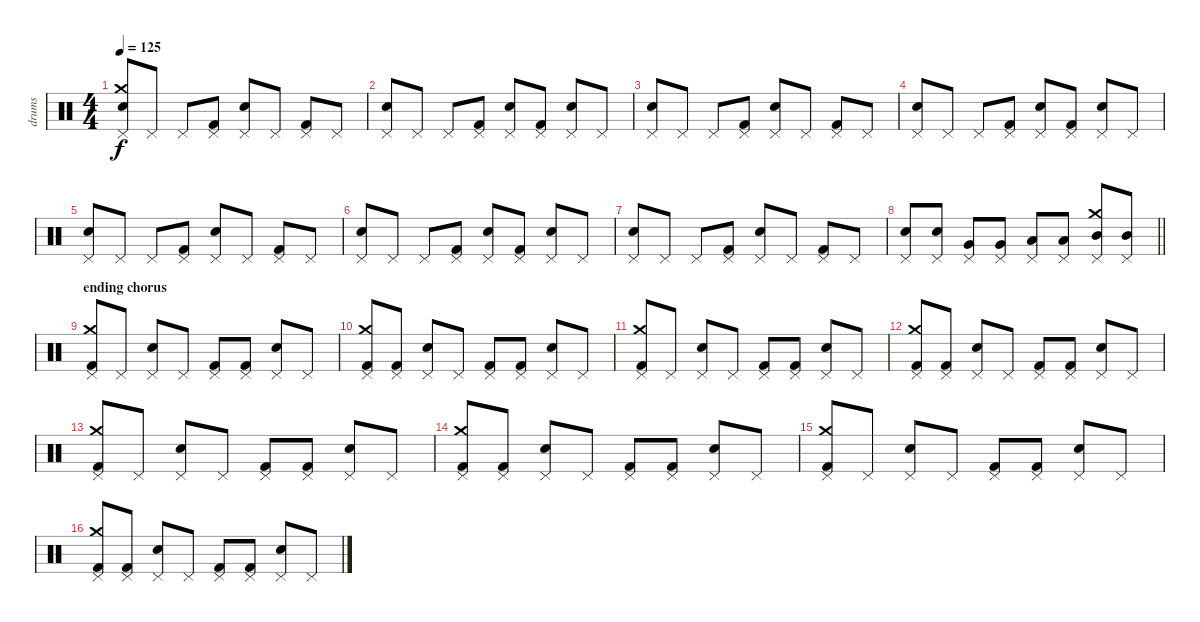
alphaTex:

\track ("drums" "drums") {instrument percussion}
\staff {score}
\articulation defaults
\ts (4 4)
\tempo 125
\clef neutral
\ks c
("Pedal Hi-Hat (hit)" "Crash medium (hit)" "Snare (hit) 2").8{dy f} "Pedal Hi-Hat (hit)".8 "Pedal Hi-Hat (hit)".8 ("Pedal Hi-Hat (hit)" "Kick (hit) 2").8 ("Pedal Hi-Hat (hit)" "Snare (hit) 2").8 "Pedal Hi-Hat (hit)".8 ("Pedal Hi-Hat (hit)" "Kick (hit) 2").8 "Pedal Hi-Hat (hit)".8 |
("Pedal Hi-Hat (hit)" "Snare (hit) 2").8 "Pedal Hi-Hat (hit)".8 "Pedal Hi-Hat (hit)".8 ("Pedal Hi-Hat (hit)" "Kick (hit) 2").8 ("Pedal Hi-Hat (hit)" "Snare (hit) 2").8 ("Pedal Hi-Hat (hit)" "Kick (hit) 2").8 ("Pedal Hi-Hat (hit)" "Snare (hit) 2").8 "Pedal Hi-Hat (hit)".8 |
("Pedal Hi-Hat (hit)" "Snare (hit) 2").8 "Pedal Hi-Hat (hit)".8 "Pedal Hi-Hat (hit)".8 ("Pedal Hi-Hat (hit)" "Kick (hit) 2").8 ("Pedal Hi-Hat (hit)" "Snare (hit) 2").8 "Pedal Hi-Hat (hit)".8 ("Pedal Hi-Hat (hit)" "Kick (hit) 2").8 "Pedal Hi-Hat (hit)".8 |
("Pedal Hi-Hat (hit)" "Snare (hit) 2").8 "Pedal Hi-Hat (hit)".8 "Pedal Hi-Hat (hit)".8 ("Pedal Hi-Hat (hit)" "Kick (hit) 2").8 ("Pedal Hi-Hat (hit)" "Snare (hit) 2").8 ("Pedal Hi-Hat (hit)" "Kick (hit) 2").8 ("Pedal Hi-Hat (hit)" "Snare (hit) 2").8 "Pedal Hi-Hat (hit)".8 |
("Pedal Hi-Hat (hit)" "Snare (hit) 2").8 "Pedal Hi-Hat (hit)".8 "Pedal Hi-Hat (hit)".8 ("Pedal Hi-Hat (hit)" "Kick (hit) 2").8 ("Pedal Hi-Hat (hit)" "Snare (hit) 2").8 "Pedal Hi-Hat (hit)".8 ("Pedal Hi-Hat (hit)" "Kick (hit) 2").8 "Pedal Hi-Hat (hit)".8 |
("Pedal Hi-Hat (hit)" "Snare (hit) 2").8 "Pedal Hi-Hat (hit)".8 "Pedal Hi-Hat (hit)".8 ("Pedal Hi-Hat (hit)" "Kick (hit) 2").8 ("Pedal Hi-Hat (hit)" "Snare (hit) 2").8 ("Pedal Hi-Hat (hit)" "Kick (hit) 2").8 ("Pedal Hi-Hat (hit)" "Snare (hit) 2").8 "Pedal Hi-Hat (hit)".8 |
("Pedal Hi-Hat (hit)" "Snare (hit) 2").8 "Pedal Hi-Hat (hit)".8 "Pedal Hi-Hat (hit)".8 ("Pedal Hi-Hat (hit)" "Kick (hit) 2").8 ("Pedal Hi-Hat (hit)" "Snare (hit) 2").8 "Pedal Hi-Hat (hit)".8 ("Pedal Hi-Hat (hit)" "Kick (hit) 2").8 "Pedal Hi-Hat (hit)".8 |
\barLineRight lightlight
("Pedal Hi-Hat (hit)" "Snare (hit) 2").8 ("Pedal Hi-Hat (hit)" "Snare (hit) 2").8 ("Pedal Hi-Hat (hit)" "Very Low Tom (hit)").8 ("Pedal Hi-Hat (hit)" "Very Low Tom (hit)").8 ("Pedal Hi-Hat (hit)" "Low Tom (hit)").8 ("Pedal Hi-Hat (hit)" "Low Tom (hit)").8 ("Pedal Hi-Hat (hit)" "Crash medium (hit)" "Mid Tom (hit)").8 ("Pedal Hi-Hat (hit)" "Mid Tom (hit)").8 |
\section ("" "ending chorus")
("Pedal Hi-Hat (hit)" "Crash medium (hit)" "Kick (hit) 2").8 "Pedal Hi-Hat (hit)".8 ("Pedal Hi-Hat (hit)" "Snare (hit) 2").8 "Pedal Hi-Hat (hit)".8 ("Pedal Hi-Hat (hit)" "Kick (hit) 2").8 ("Pedal Hi-Hat (hit)" "Kick (hit) 2").8 ("Pedal Hi-Hat (hit)" "Snare (hit) 2").8 "Pedal Hi-Hat (hit)".8 |
("Pedal Hi-Hat (hit)" "Crash medium (hit)" "Kick (hit) 2").8 ("Pedal Hi-Hat (hit)" "Kick (hit) 2").8 ("Pedal Hi-Hat (hit)" "Snare (hit) 2").8 "Pedal Hi-Hat (hit)".8 ("Pedal Hi-Hat (hit)" "Kick (hit) 2").8 ("Pedal Hi-Hat (hit)" "Kick (hit) 2").8 ("Pedal Hi-Hat (hit)" "Snare (hit) 2").8 "Pedal Hi-Hat (hit)".8 |
("Pedal Hi-Hat (hit)" "Crash medium (hit)" "Kick (hit) 2").8 "Pedal Hi-Hat (hit)".8 ("Pedal Hi-Hat (hit)" "Snare (hit) 2").8 "Pedal Hi-Hat (hit)".8 ("Pedal Hi-Hat (hit)" "Kick (hit) 2").8 ("Pedal Hi-Hat (hit)" "Kick (hit) 2").8 ("Pedal Hi-Hat (hit)" "Snare (hit) 2").8 "Pedal Hi-Hat (hit)".8 |
("Pedal Hi-Hat (hit)" "Crash medium (hit)" "Kick (hit) 2").8 ("Pedal Hi-Hat (hit)" "Kick (hit) 2").8 ("Pedal Hi-Hat (hit)" "Snare (hit) 2").8 "Pedal Hi-Hat (hit)".8 ("Pedal Hi-Hat (hit)" "Kick (hit) 2").8 ("Pedal Hi-Hat (hit)" "Kick (hit) 2").8 ("Pedal Hi-Hat (hit)" "Snare (hit) 2").8 "Pedal Hi-Hat (hit)".8 |
("Pedal Hi-Hat (hit)" "Crash medium (hit)" "Kick (hit) 2").8 "Pedal Hi-Hat (hit)".8 ("Pedal Hi-Hat (hit)" "Snare (hit) 2").8 "Pedal Hi-Hat (hit)".8 ("Pedal Hi-Hat (hit)" "Kick (hit) 2").8 ("Pedal Hi-Hat (hit)" "Kick (hit) 2").8 ("Pedal Hi-Hat (hit)" "Snare (hit) 2").8 "Pedal Hi-Hat (hit)".8 |
("Pedal Hi-Hat (hit)" "Crash medium (hit)" "Kick (hit) 2").8 ("Pedal Hi-Hat (hit)" "Kick (hit) 2").8 ("Pedal Hi-Hat (hit)" "Snare (hit) 2").8 "Pedal Hi-Hat (hit)".8 ("Pedal Hi-Hat (hit)" "Kick (hit) 2").8 ("Pedal Hi-Hat (hit)" "Kick (hit) 2").8 ("Pedal Hi-Hat (hit)" "Snare (hit) 2").8 "Pedal Hi-Hat (hit)".8 |
("Pedal Hi-Hat (hit)" "Crash medium (hit)" "Kick (hit) 2").8 "Pedal Hi-Hat (hit)".8 ("Pedal Hi-Hat (hit)" "Snare (hit) 2").8 "Pedal Hi-Hat (hit)".8 ("Pedal Hi-Hat (hit)" "Kick (hit) 2").8 ("Pedal Hi-Hat (hit)" "Kick (hit) 2").8 ("Pedal Hi-Hat (hit)" "Snare (hit) 2").8 "Pedal Hi-Hat (hit)".8 |
("Pedal Hi-Hat (hit)" "Crash medium (hit)" "Kick (hit) 2").8 ("Pedal Hi-Hat (hit)" "Kick (hit) 2").8 ("Pedal Hi-Hat (hit)" "Snare (hit) 2").8 "Pedal Hi-Hat (hit)".8 ("Pedal Hi-Hat (hit)" "Kick (hit) 2").8 ("Pedal Hi-Hat (hit)" "Kick (hit) 2").8 ("Pedal Hi-Hat (hit)" "Snare (hit) 2").8 "Pedal Hi-Hat (hit)".8
